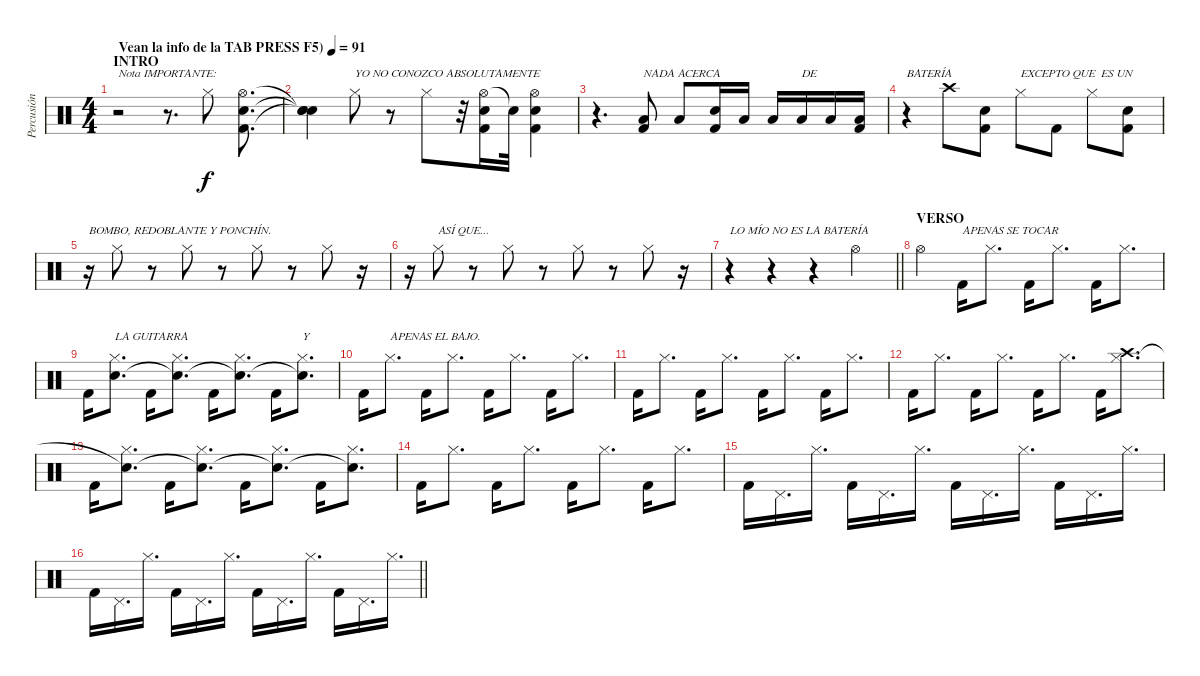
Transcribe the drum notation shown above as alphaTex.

\track ("Percusión" "Percusión") {instrument percussion}
\staff {score}
\articulation defaults
\ts (4 4)
\section ("" "INTRO")
\tempo (91 "Vean la info de la TAB PRESS F5)")
\clef neutral
\ks c
r.2{txt "Nota IMPORTANTE:" dy f} r.8{d} "Hi-Hat (closed)".8 ("Hi-Hat (open)" "Snare (hit) 2" "Kick (hit) 2").8{d} |
("Snare (hit)"{t} "Snare (hit)"{t} "Snare (hit)"{t}).4 "Hi-Hat (closed)".8{txt "YO NO CONOZCO ABSOLUTAMENTE"} r.8 "Hi-Hat (closed)".8 r.32 ("Hi-Hat (open)" "Snare (hit) 2" "Kick (hit) 2").16 "Snare (hit)"{t}.32 ("Hi-Hat (open)" "Snare (hit) 2" "Kick (hit) 2").4 |
r.4{d} ("Low Floor Tom (hit)" "Kick (hit) 2").8{txt "NADA ACERCA"} "Low Floor Tom (hit)".8 ("Snare (hit) 2" "Kick (hit) 2").16 "Low Floor Tom (hit)".16 "Low Floor Tom (hit)".16 "Low Floor Tom (hit)".16{txt "DE"} "Low Floor Tom (hit)".16 ("Low Floor Tom (hit)" "Kick (hit) 2").16 |
r.4{txt "BATERÍA"} "Crash high (hit)".8 ("Snare (hit) 2" "Kick (hit) 2").8 "Hi-Hat (closed)".8{txt "EXCEPTO QUE  ES UN"} "Kick (hit) 2".8 "Hi-Hat (closed)".8 ("Snare (hit) 2" "Kick (hit) 2").8 |
r.16{txt "BOMBO, REDOBLANTE Y PONCHÍN."} "Hi-Hat (closed)".8 r.8 "Hi-Hat (closed)".8 r.8 "Hi-Hat (closed)".8 r.8 "Hi-Hat (closed)".8 r.16 |
r.16 "Hi-Hat (closed)".8{txt "ASÍ QUE..."} r.8 "Hi-Hat (closed)".8 r.8 "Hi-Hat (closed)".8 r.8 "Hi-Hat (closed)".8 r.16 |
\barLineRight lightlight
r.4{txt "LO MÍO NO ES LA BATERÍA"} r.4 r.4 "Hi-Hat (open)".4 |
\section ("" "VERSO")
"Hi-Hat (open)".4 "Kick (hit) 2".16{txt "APENAS SE TOCAR"} "Hi-Hat (closed)".8{d} "Kick (hit) 2".16 "Hi-Hat (closed)".8{d} "Kick (hit) 2".16 "Hi-Hat (closed)".8{d} |
"Kick (hit) 2".16 ("Hi-Hat (closed)" "Snare (hit)").8{d txt "LA GUITARRA"} "Kick (hit) 2".16 ("Hi-Hat (closed)" "Snare (hit)"{t}).8{d} "Kick (hit) 2".16 ("Hi-Hat (closed)" "Snare (hit)"{t}).8{d} "Kick (hit) 2".16 ("Hi-Hat (closed)" "Snare (hit)"{t}).8{d txt "Y"} |
"Kick (hit) 2".16 "Hi-Hat (closed)".8{d txt "APENAS EL BAJO."} "Kick (hit) 2".16 "Hi-Hat (closed)".8{d} "Kick (hit) 2".16 "Hi-Hat (closed)".8{d} "Kick (hit) 2".16 "Hi-Hat (closed)".8{d} |
"Kick (hit) 2".16 "Hi-Hat (closed)".8{d} "Kick (hit) 2".16 "Hi-Hat (closed)".8{d} "Kick (hit) 2".16 "Hi-Hat (closed)".8{d} "Kick (hit) 2".16 "Hi-Hat (closed)".8{d} |
"Kick (hit) 2".16 "Hi-Hat (closed)".8{d} "Kick (hit) 2".16 "Hi-Hat (closed)".8{d} "Kick (hit) 2".16 "Hi-Hat (closed)".8{d} "Kick (hit) 2".16 ("Crash high (hit)" "Hi-Hat (closed)").8{d} |
"Kick (hit) 2".16 ("Hi-Hat (closed)" "Snare (hit)"{t}).8{d} "Kick (hit) 2".16 ("Hi-Hat (closed)" "Snare (hit)"{t}).8{d} "Kick (hit) 2".16 ("Hi-Hat (closed)" "Snare (hit)"{t}).8{d} "Kick (hit) 2".16 ("Hi-Hat (closed)" "Snare (hit)"{t}).8{d} |
"Kick (hit) 2".16 "Hi-Hat (closed)".8{d} "Kick (hit) 2".16 "Hi-Hat (closed)".8{d} "Kick (hit) 2".16 "Hi-Hat (closed)".8{d} "Kick (hit) 2".16 "Hi-Hat (closed)".8{d} |
"Kick (hit) 2".16 "Pedal Hi-Hat (hit)".16{d} "Hi-Hat (closed)".16{d} "Kick (hit) 2".16 "Pedal Hi-Hat (hit)".16{d} "Hi-Hat (closed)".16{d} "Kick (hit) 2".16 "Pedal Hi-Hat (hit)".16{d} "Hi-Hat (closed)".16{d} "Kick (hit) 2".16 "Pedal Hi-Hat (hit)".16{d} "Hi-Hat (closed)".16{d} |
\barLineRight lightlight "Kick (hit) 2".16 "Pedal Hi-Hat (hit)".16{d} "Hi-Hat (closed)".16{d} "Kick (hit) 2".16 "Pedal Hi-Hat (hit)".16{d} "Hi-Hat (closed)".16{d} "Kick (hit) 2".16 "Pedal Hi-Hat (hit)".16{d} "Hi-Hat (closed)".16{d} "Kick (hit) 2".16 "Pedal Hi-Hat (hit)".16{d} "Hi-Hat (closed)".16{d}
